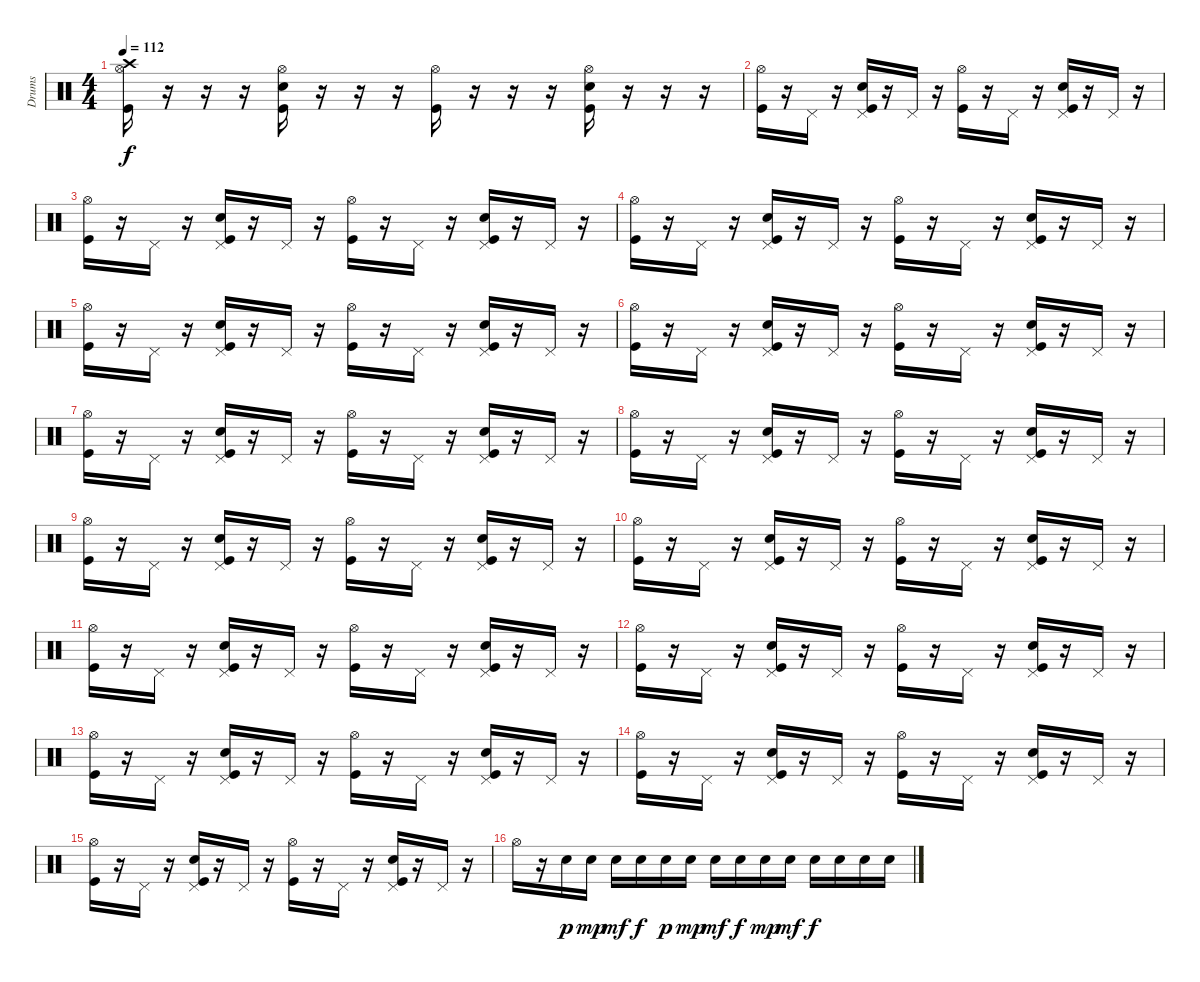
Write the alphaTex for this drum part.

\track ("Drums" "Drums") {instrument percussion}
\staff {score}
\articulation defaults
\ts (4 4)
\tempo 112
\clef neutral
\ks c
("Hi-Hat (open)" "Crash high (hit)" "Kick (hit)").16{dy f} r.16 r.16 r.16 ("Hi-Hat (open)" "Electric Snare (hit)" "Kick (hit)").16 r.16 r.16 r.16 ("Hi-Hat (open)" "Kick (hit)").16 r.16 r.16 r.16 ("Hi-Hat (open)" "Electric Snare (hit)" "Kick (hit)").16 r.16 r.16 r.16 |
("Hi-Hat (open)" "Kick (hit)").16 r.16 "Pedal Hi-Hat (hit)".16 r.16 ("Pedal Hi-Hat (hit)" "Electric Snare (hit)" "Kick (hit)").16 r.16 "Pedal Hi-Hat (hit)".16 r.16 ("Hi-Hat (open)" "Kick (hit)").16 r.16 "Pedal Hi-Hat (hit)".16 r.16 ("Pedal Hi-Hat (hit)" "Electric Snare (hit)" "Kick (hit)").16 r.16 "Pedal Hi-Hat (hit)".16 r.16 |
("Hi-Hat (open)" "Kick (hit)").16 r.16 "Pedal Hi-Hat (hit)".16 r.16 ("Pedal Hi-Hat (hit)" "Electric Snare (hit)" "Kick (hit)").16 r.16 "Pedal Hi-Hat (hit)".16 r.16 ("Hi-Hat (open)" "Kick (hit)").16 r.16 "Pedal Hi-Hat (hit)".16 r.16 ("Pedal Hi-Hat (hit)" "Electric Snare (hit)" "Kick (hit)").16 r.16 "Pedal Hi-Hat (hit)".16 r.16 |
("Hi-Hat (open)" "Kick (hit)").16 r.16 "Pedal Hi-Hat (hit)".16 r.16 ("Pedal Hi-Hat (hit)" "Electric Snare (hit)" "Kick (hit)").16 r.16 "Pedal Hi-Hat (hit)".16 r.16 ("Hi-Hat (open)" "Kick (hit)").16 r.16 "Pedal Hi-Hat (hit)".16 r.16 ("Pedal Hi-Hat (hit)" "Electric Snare (hit)" "Kick (hit)").16 r.16 "Pedal Hi-Hat (hit)".16 r.16 |
("Hi-Hat (open)" "Kick (hit)").16 r.16 "Pedal Hi-Hat (hit)".16 r.16 ("Pedal Hi-Hat (hit)" "Electric Snare (hit)" "Kick (hit)").16 r.16 "Pedal Hi-Hat (hit)".16 r.16 ("Hi-Hat (open)" "Kick (hit)").16 r.16 "Pedal Hi-Hat (hit)".16 r.16 ("Pedal Hi-Hat (hit)" "Electric Snare (hit)" "Kick (hit)").16 r.16 "Pedal Hi-Hat (hit)".16 r.16 |
("Hi-Hat (open)" "Kick (hit)").16 r.16 "Pedal Hi-Hat (hit)".16 r.16 ("Pedal Hi-Hat (hit)" "Electric Snare (hit)" "Kick (hit)").16 r.16 "Pedal Hi-Hat (hit)".16 r.16 ("Hi-Hat (open)" "Kick (hit)").16 r.16 "Pedal Hi-Hat (hit)".16 r.16 ("Pedal Hi-Hat (hit)" "Electric Snare (hit)" "Kick (hit)").16 r.16 "Pedal Hi-Hat (hit)".16 r.16 |
("Hi-Hat (open)" "Kick (hit)").16 r.16 "Pedal Hi-Hat (hit)".16 r.16 ("Pedal Hi-Hat (hit)" "Electric Snare (hit)" "Kick (hit)").16 r.16 "Pedal Hi-Hat (hit)".16 r.16 ("Hi-Hat (open)" "Kick (hit)").16 r.16 "Pedal Hi-Hat (hit)".16 r.16 ("Pedal Hi-Hat (hit)" "Electric Snare (hit)" "Kick (hit)").16 r.16 "Pedal Hi-Hat (hit)".16 r.16 |
("Hi-Hat (open)" "Kick (hit)").16 r.16 "Pedal Hi-Hat (hit)".16 r.16 ("Pedal Hi-Hat (hit)" "Electric Snare (hit)" "Kick (hit)").16 r.16 "Pedal Hi-Hat (hit)".16 r.16 ("Hi-Hat (open)" "Kick (hit)").16 r.16 "Pedal Hi-Hat (hit)".16 r.16 ("Pedal Hi-Hat (hit)" "Electric Snare (hit)" "Kick (hit)").16 r.16 "Pedal Hi-Hat (hit)".16 r.16 |
("Hi-Hat (open)" "Kick (hit)").16 r.16 "Pedal Hi-Hat (hit)".16 r.16 ("Pedal Hi-Hat (hit)" "Electric Snare (hit)" "Kick (hit)").16 r.16 "Pedal Hi-Hat (hit)".16 r.16 ("Hi-Hat (open)" "Kick (hit)").16 r.16 "Pedal Hi-Hat (hit)".16 r.16 ("Pedal Hi-Hat (hit)" "Electric Snare (hit)" "Kick (hit)").16 r.16 "Pedal Hi-Hat (hit)".16 r.16 |
("Hi-Hat (open)" "Kick (hit)").16 r.16 "Pedal Hi-Hat (hit)".16 r.16 ("Pedal Hi-Hat (hit)" "Electric Snare (hit)" "Kick (hit)").16 r.16 "Pedal Hi-Hat (hit)".16 r.16 ("Hi-Hat (open)" "Kick (hit)").16 r.16 "Pedal Hi-Hat (hit)".16 r.16 ("Pedal Hi-Hat (hit)" "Electric Snare (hit)" "Kick (hit)").16 r.16 "Pedal Hi-Hat (hit)".16 r.16 |
("Hi-Hat (open)" "Kick (hit)").16 r.16 "Pedal Hi-Hat (hit)".16 r.16 ("Pedal Hi-Hat (hit)" "Electric Snare (hit)" "Kick (hit)").16 r.16 "Pedal Hi-Hat (hit)".16 r.16 ("Hi-Hat (open)" "Kick (hit)").16 r.16 "Pedal Hi-Hat (hit)".16 r.16 ("Pedal Hi-Hat (hit)" "Electric Snare (hit)" "Kick (hit)").16 r.16 "Pedal Hi-Hat (hit)".16 r.16 |
("Hi-Hat (open)" "Kick (hit)").16 r.16 "Pedal Hi-Hat (hit)".16 r.16 ("Pedal Hi-Hat (hit)" "Electric Snare (hit)" "Kick (hit)").16 r.16 "Pedal Hi-Hat (hit)".16 r.16 ("Hi-Hat (open)" "Kick (hit)").16 r.16 "Pedal Hi-Hat (hit)".16 r.16 ("Pedal Hi-Hat (hit)" "Electric Snare (hit)" "Kick (hit)").16 r.16 "Pedal Hi-Hat (hit)".16 r.16 |
("Hi-Hat (open)" "Kick (hit)").16 r.16 "Pedal Hi-Hat (hit)".16 r.16 ("Pedal Hi-Hat (hit)" "Electric Snare (hit)" "Kick (hit)").16 r.16 "Pedal Hi-Hat (hit)".16 r.16 ("Hi-Hat (open)" "Kick (hit)").16 r.16 "Pedal Hi-Hat (hit)".16 r.16 ("Pedal Hi-Hat (hit)" "Electric Snare (hit)" "Kick (hit)").16 r.16 "Pedal Hi-Hat (hit)".16 r.16 |
("Hi-Hat (open)" "Kick (hit)").16 r.16 "Pedal Hi-Hat (hit)".16 r.16 ("Pedal Hi-Hat (hit)" "Electric Snare (hit)" "Kick (hit)").16 r.16 "Pedal Hi-Hat (hit)".16 r.16 ("Hi-Hat (open)" "Kick (hit)").16 r.16 "Pedal Hi-Hat (hit)".16 r.16 ("Pedal Hi-Hat (hit)" "Electric Snare (hit)" "Kick (hit)").16 r.16 "Pedal Hi-Hat (hit)".16 r.16 |
("Hi-Hat (open)" "Kick (hit)").16 r.16 "Pedal Hi-Hat (hit)".16 r.16 ("Pedal Hi-Hat (hit)" "Electric Snare (hit)" "Kick (hit)").16 r.16 "Pedal Hi-Hat (hit)".16 r.16 ("Hi-Hat (open)" "Kick (hit)").16 r.16 "Pedal Hi-Hat (hit)".16 r.16 ("Pedal Hi-Hat (hit)" "Electric Snare (hit)" "Kick (hit)").16 r.16 "Pedal Hi-Hat (hit)".16 r.16 |
"Hi-Hat (open)".16 r.16 "Electric Snare (hit)".16{dy p} "Electric Snare (hit)".16{dy mp} "Electric Snare (hit)".16{dy mf} "Electric Snare (hit)".16{dy f} "Electric Snare (hit)".16{dy p} "Electric Snare (hit)".16{dy mp} "Electric Snare (hit)".16{dy mf} "Electric Snare (hit)".16{dy f} "Electric Snare (hit)".16{dy mp} "Electric Snare (hit)".16{dy mf} "Electric Snare (hit)".16{dy f} "Electric Snare (hit)".16 "Electric Snare (hit)".16 "Electric Snare (hit)".16
